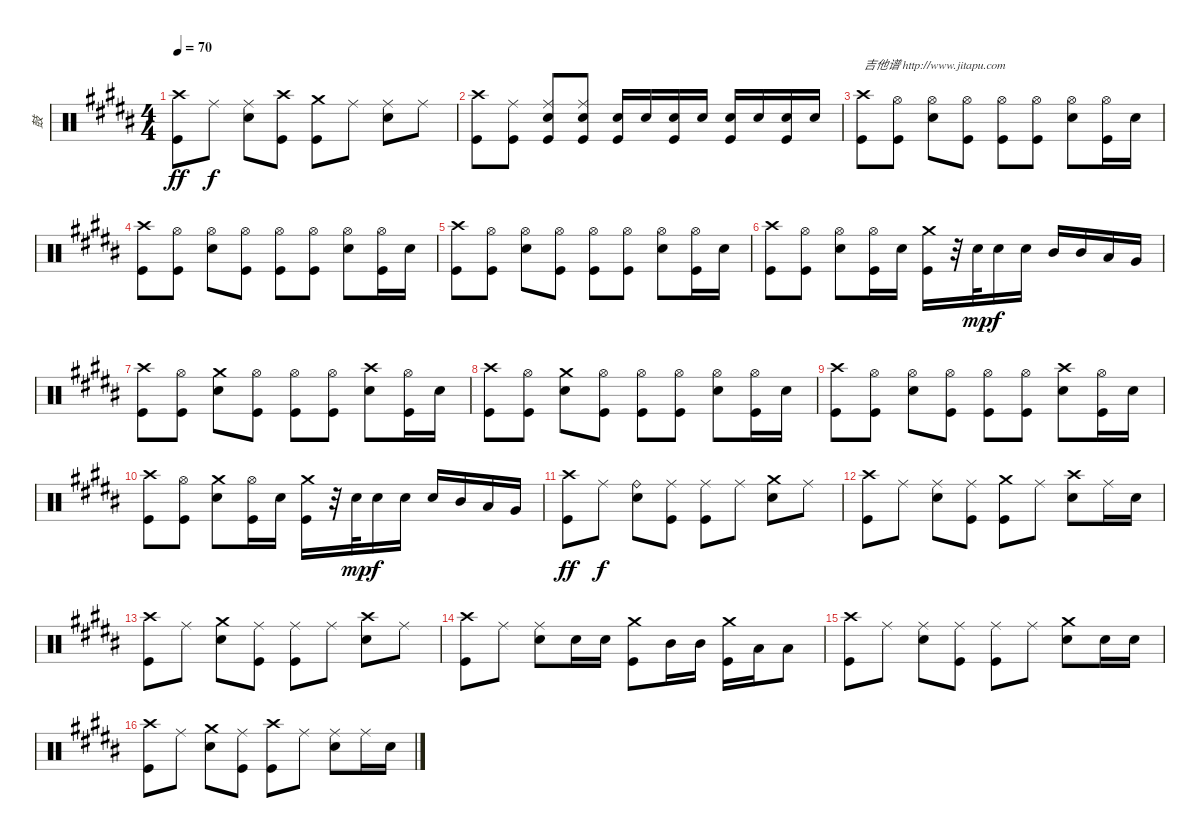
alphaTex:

\track ("鼓" "鼓") {instrument percussion}
\staff {score}
\articulation defaults
\ts (4 4)
\tempo 70
\clef neutral
\ks b
("Crash high (hit)" "Kick (hit)").8{dy ff} "Ride (middle)".8{dy f} ("Ride (middle)" "Electric Snare (hit)").8 ("Crash high (hit)" "Kick (hit)").8 ("Crash medium (hit)" "Kick (hit)").8 "Ride (middle)".8 ("Ride (middle)" "Electric Snare (hit)").8 "Ride (middle)".8 |
("Crash high (hit)" "Kick (hit)").8 ("Ride (middle)" "Kick (hit)").8 ("Ride (middle)" "Electric Snare (hit)" "Kick (hit)").8 ("Ride (middle)" "Electric Snare (hit)" "Kick (hit)").8 ("Electric Snare (hit)" "Kick (hit)").16 "Electric Snare (hit)".16 ("Electric Snare (hit)" "Kick (hit)").16 "Electric Snare (hit)".16 ("Electric Snare (hit)" "Kick (hit)").16 "Electric Snare (hit)".16 ("Electric Snare (hit)" "Kick (hit)").16 "Electric Snare (hit)".16 |
("Crash high (hit)" "Kick (hit)").8{txt "吉他谱 http://www.jitapu.com"} ("Hi-Hat (open)" "Kick (hit)").8 ("Hi-Hat (open)" "Electric Snare (hit)").8 ("Hi-Hat (open)" "Kick (hit)").8 ("Hi-Hat (open)" "Kick (hit)").8 ("Hi-Hat (open)" "Kick (hit)").8 ("Hi-Hat (open)" "Electric Snare (hit)").8 ("Hi-Hat (open)" "Kick (hit)").16 "Electric Snare (hit)".16 |
("Crash high (hit)" "Kick (hit)").8 ("Hi-Hat (open)" "Kick (hit)").8 ("Hi-Hat (open)" "Electric Snare (hit)").8 ("Hi-Hat (open)" "Kick (hit)").8 ("Hi-Hat (open)" "Kick (hit)").8 ("Hi-Hat (open)" "Kick (hit)").8 ("Hi-Hat (open)" "Electric Snare (hit)").8 ("Hi-Hat (open)" "Kick (hit)").16 "Electric Snare (hit)".16 |
("Crash high (hit)" "Kick (hit)").8 ("Hi-Hat (open)" "Kick (hit)").8 ("Hi-Hat (open)" "Electric Snare (hit)").8 ("Hi-Hat (open)" "Kick (hit)").8 ("Hi-Hat (open)" "Kick (hit)").8 ("Hi-Hat (open)" "Kick (hit)").8 ("Hi-Hat (open)" "Electric Snare (hit)").8 ("Hi-Hat (open)" "Kick (hit)").16 "Electric Snare (hit)".16 |
("Crash high (hit)" "Kick (hit)").8 ("Hi-Hat (open)" "Kick (hit)").8 ("Hi-Hat (open)" "Electric Snare (hit)").8 ("Hi-Hat (open)" "Kick (hit)").16 "Electric Snare (hit)".16 ("Crash medium (hit)" "Kick (hit)").16 r.32 "Electric Snare (hit)".32{dy mp} "Electric Snare (hit)".16{dy f} "Electric Snare (hit)".16 "Mid Tom (hit)".16 "Mid Tom (hit)".16 "Low Tom (hit)".16 "Very Low Tom (hit)".16 |
("Crash high (hit)" "Kick (hit)").8 ("Hi-Hat (open)" "Kick (hit)").8 ("Crash medium (hit)" "Electric Snare (hit)").8 ("Hi-Hat (open)" "Kick (hit)").8 ("Hi-Hat (open)" "Kick (hit)").8 ("Hi-Hat (open)" "Kick (hit)").8 ("Crash high (hit)" "Electric Snare (hit)").8 ("Hi-Hat (open)" "Kick (hit)").16 "Electric Snare (hit)".16 |
("Crash high (hit)" "Kick (hit)").8 ("Hi-Hat (open)" "Kick (hit)").8 ("Crash medium (hit)" "Electric Snare (hit)").8 ("Hi-Hat (open)" "Kick (hit)").8 ("Hi-Hat (open)" "Kick (hit)").8 ("Hi-Hat (open)" "Kick (hit)").8 ("Hi-Hat (open)" "Electric Snare (hit)").8 ("Hi-Hat (open)" "Kick (hit)").16 "Electric Snare (hit)".16 |
("Crash high (hit)" "Kick (hit)").8 ("Hi-Hat (open)" "Kick (hit)").8 ("Hi-Hat (open)" "Electric Snare (hit)").8 ("Hi-Hat (open)" "Kick (hit)").8 ("Hi-Hat (open)" "Kick (hit)").8 ("Hi-Hat (open)" "Kick (hit)").8 ("Crash high (hit)" "Electric Snare (hit)").8 ("Hi-Hat (open)" "Kick (hit)").16 "Electric Snare (hit)".16 |
("Crash high (hit)" "Kick (hit)").8 ("Hi-Hat (open)" "Kick (hit)").8 ("Crash medium (hit)" "Electric Snare (hit)").8 ("Hi-Hat (open)" "Kick (hit)").16 "Electric Snare (hit)".16 ("Crash medium (hit)" "Kick (hit)").16 r.32 "Electric Snare (hit)".32{dy mp} "Electric Snare (hit)".16{dy f} "Electric Snare (hit)".16 "Electric Snare (hit)".16 "Mid Tom (hit)".16 "Low Tom (hit)".16 "Very Low Tom (hit)".16 |
("Crash high (hit)" "Kick (hit)").8{dy ff} "Ride (middle)".8{dy f} ("Ride (bell)" "Electric Snare (hit)").8 ("Ride (middle)" "Kick (hit)").8 ("Ride (middle)" "Kick (hit)").8 "Ride (middle)".8 ("Crash medium (hit)" "Electric Snare (hit)").8 "Ride (middle)".8 |
("Crash high (hit)" "Kick (hit)").8 "Ride (middle)".8 ("Ride (middle)" "Electric Snare (hit)").8 ("Ride (middle)" "Kick (hit)").8 ("Crash medium (hit)" "Kick (hit)").8 "Ride (middle)".8 ("Crash high (hit)" "Electric Snare (hit)").8 "Ride (middle)".16 "Electric Snare (hit)".16 |
("Crash high (hit)" "Kick (hit)").8 "Ride (middle)".8 ("Crash medium (hit)" "Electric Snare (hit)").8 ("Ride (middle)" "Kick (hit)").8 ("Ride (middle)" "Kick (hit)").8 "Ride (middle)".8 ("Crash high (hit)" "Electric Snare (hit)").8 "Ride (middle)".8 |
("Crash high (hit)" "Kick (hit)").8 "Ride (middle)".8 ("Ride (middle)" "Electric Snare (hit)").8 "Electric Snare (hit)".16 "Electric Snare (hit)".16 ("Crash medium (hit)" "Kick (hit)").8 "Mid Tom (hit)".16 "Mid Tom (hit)".16 ("Crash medium (hit)" "Kick (hit)").16 "Low Tom (hit)".16 "Low Tom (hit)".8 |
("Crash high (hit)" "Kick (hit)").8 "Ride (middle)".8 ("Ride (middle)" "Electric Snare (hit)").8 ("Ride (middle)" "Kick (hit)").8 ("Ride (middle)" "Kick (hit)").8 "Ride (middle)".8 ("Crash medium (hit)" "Electric Snare (hit)").8 "Electric Snare (hit)".16 "Electric Snare (hit)".16 |
("Crash high (hit)" "Kick (hit)").8 "Ride (middle)".8 ("Crash medium (hit)" "Electric Snare (hit)").8 ("Ride (middle)" "Kick (hit)").8 ("Crash high (hit)" "Kick (hit)").8 "Ride (middle)".8 ("Ride (middle)" "Electric Snare (hit)").8 "Ride (middle)".16 "Electric Snare (hit)".16
